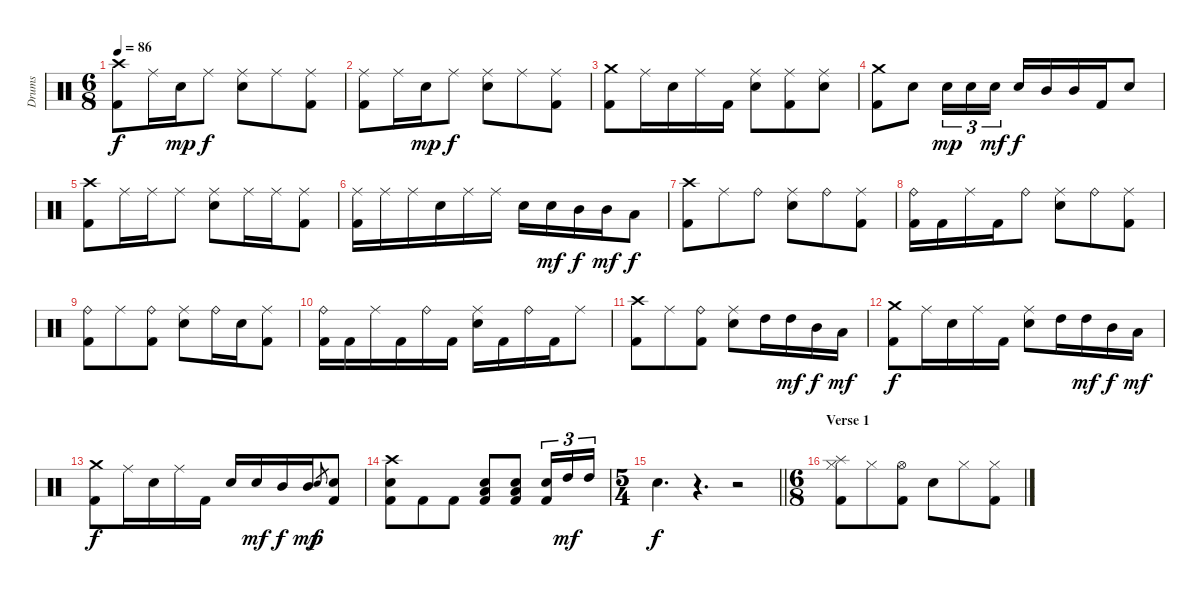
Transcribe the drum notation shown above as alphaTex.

\track ("Drums" "Drums") {instrument percussion}
\staff {score}
\articulation defaults
\ts (6 8)
\tempo 86
\clef neutral
\ks c
("Crash high (hit)" "Kick (hit) 2").8{dy f} "Ride (middle)".16 "Electric Snare (hit)".16{dy mp} "Ride (middle)".8{dy f} ("Ride (middle)" "Electric Snare (hit)").8 "Ride (middle)".8 ("Ride (middle)" "Kick (hit) 2").8 |
("Ride (middle)" "Kick (hit) 2").8 "Ride (middle)".16 "Electric Snare (hit)".16{dy mp} "Ride (middle)".8{dy f} ("Ride (middle)" "Electric Snare (hit)").8 "Ride (middle)".8 ("Ride (middle)" "Kick (hit) 2").8 |
("Crash medium (hit)" "Kick (hit) 2").8 "Ride (middle)".16 "Electric Snare (hit)".16 "Ride (middle)".16 "Kick (hit) 2".16 ("Ride (middle)" "Electric Snare (hit)").8 ("Ride (middle)" "Kick (hit) 2").8 ("Ride (middle)" "Electric Snare (hit)").8 |
("Crash medium (hit)" "Kick (hit) 2").8 "Electric Snare (hit)".8 "Electric Snare (hit)".16{tu (3 2) dy mp} "Electric Snare (hit)".16{tu (3 2)} "Electric Snare (hit)".16{tu (3 2) dy mf} "Electric Snare (hit)".16{dy f} "Mid Tom (hit)".16 "Mid Tom (hit)".16 "Kick (hit) 2".16 "Electric Snare (hit)".8 |
("Crash high (hit)" "Kick (hit) 2").8 "Ride (middle)".16 "Ride (middle)".16 "Ride (middle)".8 ("Ride (middle)" "Electric Snare (hit)").8 "Ride (middle)".16 "Ride (middle)".16 ("Ride (middle)" "Kick (hit) 2").8 |
("Ride (middle)" "Kick (hit) 2").16 "Ride (middle)".16 "Ride (middle)".16 "Electric Snare (hit)".16 "Ride (middle)".16 "Ride (middle)".16 "Electric Snare (hit)".16 "Electric Snare (hit)".16{dy mf} "Mid Tom (hit)".16{dy f} "Mid Tom (hit)".16{dy mf} "Low Tom (hit)".8{dy f} |
("Crash high (hit)" "Kick (hit) 2").8 "Ride (middle)".8 "Ride (bell)".8 ("Ride (middle)" "Electric Snare (hit)").8 "Ride (bell)".8 ("Ride (middle)" "Kick (hit) 2").8 |
("Ride (bell)" "Kick (hit) 2").16 "Kick (hit) 2".16 "Ride (middle)".16 "Kick (hit) 2".16 "Ride (bell)".8 ("Ride (middle)" "Electric Snare (hit)").8 "Ride (bell)".8 ("Ride (middle)" "Kick (hit) 2").8 |
("Ride (bell)" "Kick (hit) 2").8 "Ride (middle)".8 ("Ride (bell)" "Kick (hit) 2").8 ("Ride (middle)" "Electric Snare (hit)").8 "Ride (bell)".16 "Electric Snare (hit)".16 ("Ride (middle)" "Kick (hit) 2").8 |
("Ride (bell)" "Kick (hit) 2").16 "Kick (hit) 2".16 "Ride (middle)".16 "Kick (hit) 2".16 "Ride (bell)".16 "Kick (hit) 2".16 ("Ride (middle)" "Electric Snare (hit)").16 "Kick (hit) 2".16 "Ride (bell)".16 "Kick (hit) 2".16 "Ride (middle)".8 |
("Crash high (hit)" "Kick (hit) 2").8 "Ride (middle)".8 ("Ride (bell)" "Kick (hit) 2").8 ("Ride (middle)" "Electric Snare (hit)").8 "High Tom (hit)".16 "High Tom (hit)".16{dy mf} "Mid Tom (hit)".16{dy f} "Low Tom (hit)".16{dy mf} |
("Crash medium (hit)" "Kick (hit) 2").8{dy f} "Ride (middle)".16 "Electric Snare (hit)".16 "Ride (middle)".16 "Kick (hit) 2".16 ("Ride (middle)" "Electric Snare (hit)").8 "High Tom (hit)".16 "High Tom (hit)".16{dy mf} "Mid Tom (hit)".16{dy f} "Low Tom (hit)".16{dy mf} |
("Crash medium (hit)" "Kick (hit) 2").8{dy f} "Ride (middle)".16 "Electric Snare (hit)".16 "Ride (middle)".16 "Kick (hit) 2".16 "Electric Snare (hit)".16 "Electric Snare (hit)".16{dy mf} "Mid Tom (hit)".16{dy f} "Mid Tom (hit)".16{dy mp} "Electric Snare (hit)".8{gr dy f} ("Electric Snare (hit)" "Kick (hit) 2").8 |
("Crash high (hit)" "Electric Snare (hit)" "Kick (hit) 2").8 "Kick (hit) 2".8 "Kick (hit) 2".8 ("Electric Snare (hit)" "Low Tom (hit)" "Kick (hit) 2").8 ("Electric Snare (hit)" "Low Tom (hit)" "Kick (hit) 2").8 ("Electric Snare (hit)" "Kick (hit) 2").16{tu (3 2)} "High Tom (hit)".16{tu (3 2) dy mf} "High Tom (hit)".16{tu (3 2)} |
\ts (5 4)
\barLineRight lightlight "Electric Snare (hit)".4{d dy f}
r.4{d} r.2 |
\ts (6 8)
\section ("" "Verse 1")
("Splash (hit)" "Hi-Hat (closed)" "Kick (hit) 2").8 "Hi-Hat (closed)".8 ("Hi-Hat (open)" "Kick (hit) 2").8 "Electric Snare (hit)".8 "Hi-Hat (closed)".8 ("Hi-Hat (closed)" "Kick (hit) 2").8
